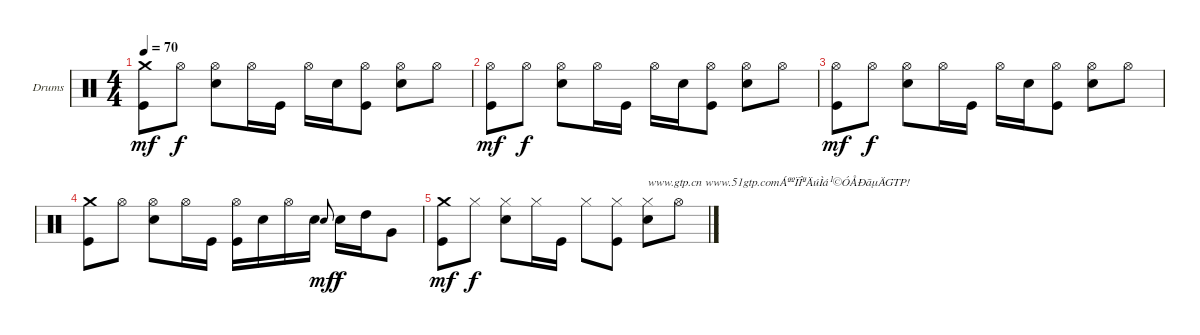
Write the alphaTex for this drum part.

\bracketExtendMode groupsimilarinstruments
\firstSystemTrackNameOrientation horizontal
\otherSystemsTrackNameOrientation horizontal
\track ("Drumkit" "Drums") {instrument percussion}
\staff {score}
\articulation defaults
\ts (4 4)
\tempo 70
\clef neutral
\ks c
("Crash medium (hit)" "Kick (hit)").8{dy mf} "Hi-Hat (open)".8{dy f} ("Hi-Hat (open)" "Snare (hit) 2").8 "Hi-Hat (open)".16 "Kick (hit)".16 "Hi-Hat (open)".16 "Snare (hit) 2".16 ("Hi-Hat (open)" "Kick (hit)").8 ("Hi-Hat (open)" "Snare (hit) 2").8 "Hi-Hat (open)".8 |
("Hi-Hat (open)" "Kick (hit)").8{dy mf} "Hi-Hat (open)".8{dy f} ("Hi-Hat (open)" "Snare (hit) 2").8 "Hi-Hat (open)".16 "Kick (hit)".16 "Hi-Hat (open)".16 "Snare (hit) 2".16 ("Hi-Hat (open)" "Kick (hit)").8 ("Hi-Hat (open)" "Snare (hit) 2").8 "Hi-Hat (open)".8 |
("Hi-Hat (open)" "Kick (hit)").8{dy mf} "Hi-Hat (open)".8{dy f} ("Hi-Hat (open)" "Snare (hit) 2").8 "Hi-Hat (open)".16 "Kick (hit)".16 "Hi-Hat (open)".16 "Snare (hit) 2".16 ("Hi-Hat (open)" "Kick (hit)").8 ("Hi-Hat (open)" "Snare (hit) 2").8 "Hi-Hat (open)".8 |
("Crash medium (hit)" "Kick (hit)").8 "Hi-Hat (open)".8 ("Hi-Hat (open)" "Snare (hit) 2").8 "Hi-Hat (open)".16 "Kick (hit)".16 ("Hi-Hat (open)" "Kick (hit)").16 "Snare (hit) 2".16 "Hi-Hat (open)".16 "Snare (hit) 2".16 "Snare (hit) 2".8{gr onbeat dy mf} "Snare (hit) 2".16{dy f} "High Tom (hit)".16 "Very Low Tom (hit)".8 |
("Crash medium (hit)" "Kick (hit)").8{dy mf} "Hi-Hat (closed)".8{dy f} ("Hi-Hat (closed)" "Snare (hit) 2").8 "Hi-Hat (closed)".16 "Kick (hit)".16 "Hi-Hat (closed)".8 ("Hi-Hat (closed)" "Kick (hit)").8 ("Hi-Hat (closed)" "Snare (hit) 2").8{txt "www.gtp.cn www.51gtp.comÁªºÏÎªÄúÌá¹©ÓÅÐãµÄGTP!"} "Hi-Hat (open)".8
